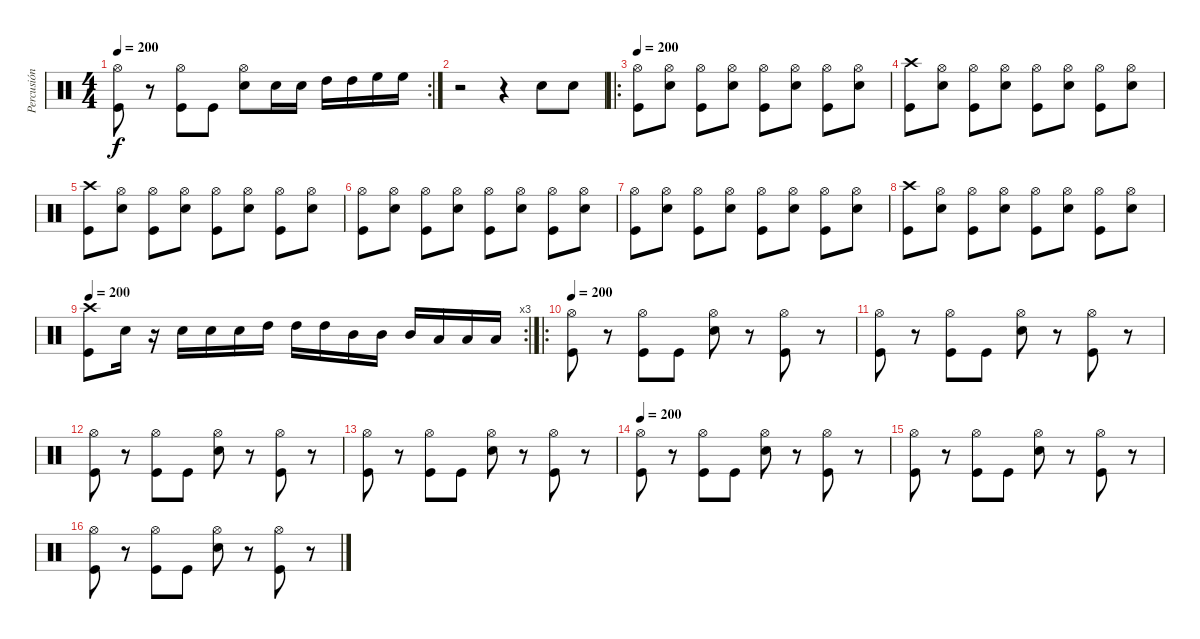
\track ("Percusión" "Percusión") {instrument percussion}
\staff {score}
\articulation defaults
\rc 2
\ts (4 4)
\tempo 200
\clef neutral
\ks c
("Hi-Hat (open)" "Kick (hit)").8{dy f} r.8 ("Hi-Hat (open)" "Kick (hit)").8 "Kick (hit)".8 ("Hi-Hat (open)" "Snare (hit) 2").8 "Snare (hit) 2".16 "Snare (hit) 2".16 "High Tom (hit)".16 "High Tom (hit)".16 "High Floor Tom (hit)".16 "High Floor Tom (hit)".16 |
r.2 r.4 "Snare (hit) 2".8 "Snare (hit) 2".8 |
\ro
\tempo 200
("Hi-Hat (open)" "Kick (hit)").8 ("Hi-Hat (open)" "Snare (hit) 2").8 ("Hi-Hat (open)" "Kick (hit)").8 ("Hi-Hat (open)" "Snare (hit) 2").8 ("Hi-Hat (open)" "Kick (hit)").8 ("Hi-Hat (open)" "Snare (hit) 2").8 ("Hi-Hat (open)" "Kick (hit)").8 ("Hi-Hat (open)" "Snare (hit) 2").8 |
("Crash high (hit)" "Kick (hit)").8 ("Hi-Hat (open)" "Snare (hit) 2").8 ("Hi-Hat (open)" "Kick (hit)").8 ("Hi-Hat (open)" "Snare (hit) 2").8 ("Hi-Hat (open)" "Kick (hit)").8 ("Hi-Hat (open)" "Snare (hit) 2").8 ("Hi-Hat (open)" "Kick (hit)").8 ("Hi-Hat (open)" "Snare (hit) 2").8 |
("Crash high (hit)" "Kick (hit)").8 ("Hi-Hat (open)" "Snare (hit) 2").8 ("Hi-Hat (open)" "Kick (hit)").8 ("Hi-Hat (open)" "Snare (hit) 2").8 ("Hi-Hat (open)" "Kick (hit)").8 ("Hi-Hat (open)" "Snare (hit) 2").8 ("Hi-Hat (open)" "Kick (hit)").8 ("Hi-Hat (open)" "Snare (hit) 2").8 |
("Hi-Hat (open)" "Kick (hit)").8 ("Hi-Hat (open)" "Snare (hit) 2").8 ("Hi-Hat (open)" "Kick (hit)").8 ("Hi-Hat (open)" "Snare (hit) 2").8 ("Hi-Hat (open)" "Kick (hit)").8 ("Hi-Hat (open)" "Snare (hit) 2").8 ("Hi-Hat (open)" "Kick (hit)").8 ("Hi-Hat (open)" "Snare (hit) 2").8 |
("Hi-Hat (open)" "Kick (hit)").8 ("Hi-Hat (open)" "Snare (hit) 2").8 ("Hi-Hat (open)" "Kick (hit)").8 ("Hi-Hat (open)" "Snare (hit) 2").8 ("Hi-Hat (open)" "Kick (hit)").8 ("Hi-Hat (open)" "Snare (hit) 2").8 ("Hi-Hat (open)" "Kick (hit)").8 ("Hi-Hat (open)" "Snare (hit) 2").8 |
("Crash high (hit)" "Kick (hit)").8 ("Hi-Hat (open)" "Snare (hit) 2").8 ("Hi-Hat (open)" "Kick (hit)").8 ("Hi-Hat (open)" "Snare (hit) 2").8 ("Hi-Hat (open)" "Kick (hit)").8 ("Hi-Hat (open)" "Snare (hit) 2").8 ("Hi-Hat (open)" "Kick (hit)").8 ("Hi-Hat (open)" "Snare (hit) 2").8 |
\rc 3
\tempo 200
("Crash high (hit)" "Kick (hit)").8 "Snare (hit) 2".16 r.16 "Snare (hit) 2".16 "Snare (hit) 2".16 "Snare (hit) 2".16 "High Tom (hit)".16 "High Tom (hit)".16 "High Tom (hit)".16 "Mid Tom (hit)".16 "Mid Tom (hit)".16 "Mid Tom (hit)".16 "Low Tom (hit)".16 "Low Tom (hit)".16 "Low Tom (hit)".16 |
\ro
\tempo 200
("Hi-Hat (open)" "Kick (hit)").8 r.8 ("Hi-Hat (open)" "Kick (hit)").8 "Kick (hit)".8 ("Hi-Hat (open)" "Snare (hit) 2").8 r.8 ("Hi-Hat (open)" "Kick (hit)").8 r.8 |
("Hi-Hat (open)" "Kick (hit)").8 r.8 ("Hi-Hat (open)" "Kick (hit)").8 "Kick (hit)".8 ("Hi-Hat (open)" "Snare (hit) 2").8 r.8 ("Hi-Hat (open)" "Kick (hit)").8 r.8 |
("Hi-Hat (open)" "Kick (hit)").8 r.8 ("Hi-Hat (open)" "Kick (hit)").8 "Kick (hit)".8 ("Hi-Hat (open)" "Snare (hit) 2").8 r.8 ("Hi-Hat (open)" "Kick (hit)").8 r.8 |
("Hi-Hat (open)" "Kick (hit)").8 r.8 ("Hi-Hat (open)" "Kick (hit)").8 "Kick (hit)".8 ("Hi-Hat (open)" "Snare (hit) 2").8 r.8 ("Hi-Hat (open)" "Kick (hit)").8 r.8 |
\tempo 200
("Hi-Hat (open)" "Kick (hit)").8 r.8 ("Hi-Hat (open)" "Kick (hit)").8 "Kick (hit)".8 ("Hi-Hat (open)" "Snare (hit) 2").8 r.8 ("Hi-Hat (open)" "Kick (hit)").8 r.8 |
("Hi-Hat (open)" "Kick (hit)").8 r.8 ("Hi-Hat (open)" "Kick (hit)").8 "Kick (hit)".8 ("Hi-Hat (open)" "Snare (hit) 2").8 r.8 ("Hi-Hat (open)" "Kick (hit)").8 r.8 |
("Hi-Hat (open)" "Kick (hit)").8 r.8 ("Hi-Hat (open)" "Kick (hit)").8 "Kick (hit)".8 ("Hi-Hat (open)" "Snare (hit) 2").8 r.8 ("Hi-Hat (open)" "Kick (hit)").8 r.8
